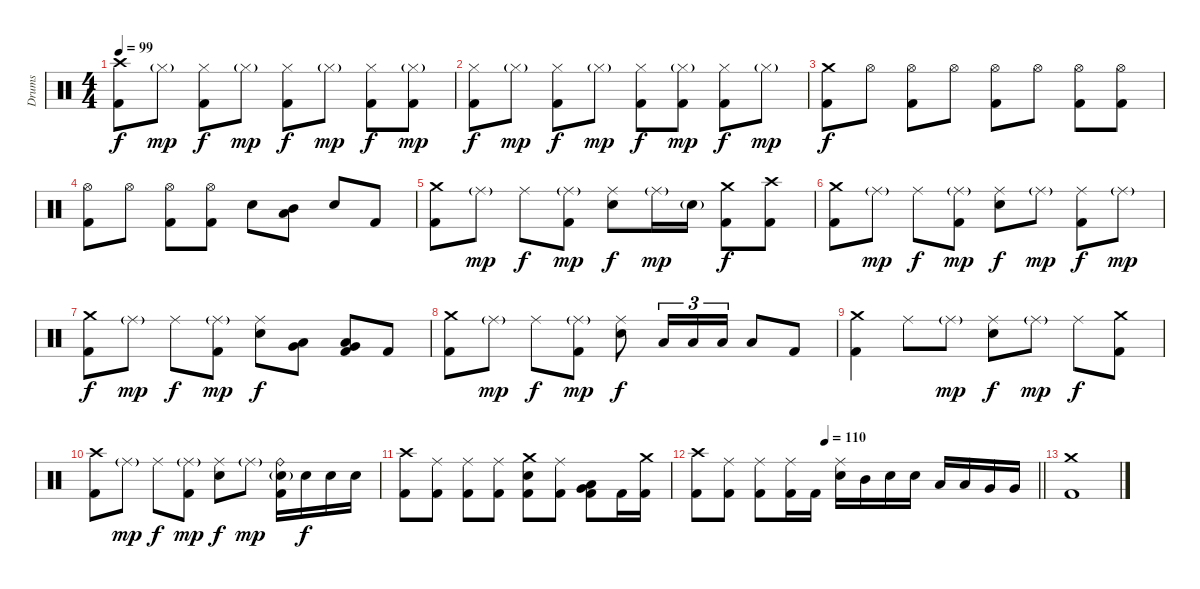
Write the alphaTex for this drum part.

\track ("Drums" "Drums") {instrument percussion}
\staff {score}
\articulation defaults
\ts (4 4)
\tempo 99
\clef neutral
\ks c
("Crash high (hit)" "Kick (hit) 2").8{dy f} "Hi-Hat (closed)"{g}.8{dy mp} ("Hi-Hat (closed)" "Kick (hit) 2").8{dy f} "Hi-Hat (closed)"{g}.8{dy mp} ("Hi-Hat (closed)" "Kick (hit) 2").8{dy f} "Hi-Hat (closed)"{g}.8{dy mp} ("Hi-Hat (closed)" "Kick (hit) 2").8{dy f} ("Hi-Hat (closed)"{g} "Kick (hit) 2").8{dy mp} |
("Hi-Hat (closed)" "Kick (hit) 2").8{dy f} "Hi-Hat (closed)"{g}.8{dy mp} ("Hi-Hat (closed)" "Kick (hit) 2").8{dy f} "Hi-Hat (closed)"{g}.8{dy mp} ("Hi-Hat (closed)" "Kick (hit) 2").8{dy f} ("Hi-Hat (closed)"{g} "Kick (hit) 2").8{dy mp} ("Hi-Hat (closed)" "Kick (hit) 2").8{dy f} "Hi-Hat (closed)"{g}.8{dy mp} |
("Crash medium (hit)" "Kick (hit) 2").8{dy f} "Hi-Hat (open)".8 ("Hi-Hat (open)" "Kick (hit) 2").8 "Hi-Hat (open)".8 ("Hi-Hat (open)" "Kick (hit) 2").8 "Hi-Hat (open)".8 ("Hi-Hat (open)" "Kick (hit) 2").8 ("Hi-Hat (open)" "Kick (hit) 2").8 |
("Hi-Hat (open)" "Kick (hit) 2").8 "Hi-Hat (open)".8 ("Hi-Hat (open)" "Kick (hit) 2").8 ("Hi-Hat (open)" "Kick (hit) 2").8 "Electric Snare (hit)".8 ("Low Tom (hit)" "Mid Tom (hit)").8 "Electric Snare (hit)".8 "Kick (hit) 2".8 |
("Crash medium (hit)" "Kick (hit) 2").8 "Ride (middle)"{g}.8{dy mp} "Ride (middle)".8{dy f} ("Ride (middle)"{g} "Kick (hit) 2").8{dy mp} ("Ride (middle)" "Electric Snare (hit)").8{dy f} "Ride (middle)"{g}.16{dy mp} "Electric Snare (hit)"{g}.16 ("Crash medium (hit)" "Kick (hit) 2").8{dy f} ("Crash high (hit)" "Kick (hit) 2").8 |
("Crash medium (hit)" "Kick (hit) 2").8 "Ride (middle)"{g}.8{dy mp} "Ride (middle)".8{dy f} ("Ride (middle)"{g} "Kick (hit) 2").8{dy mp} ("Ride (middle)" "Electric Snare (hit)").8{dy f} "Ride (middle)"{g}.8{dy mp} ("Ride (middle)" "Kick (hit) 2").8{dy f} "Ride (middle)"{g}.8{dy mp} |
("Crash medium (hit)" "Kick (hit) 2").8{dy f} "Ride (middle)"{g}.8{dy mp} "Ride (middle)".8{dy f} ("Ride (middle)"{g} "Kick (hit) 2").8{dy mp} ("Ride (middle)" "Electric Snare (hit)").8{dy f} ("Very Low Tom (hit)" "Low Floor Tom (hit)").8 ("Very Low Tom (hit)" "Low Floor Tom (hit)" "Kick (hit) 2").8 "Kick (hit) 2".8 |
("Crash medium (hit)" "Kick (hit) 2").8 "Ride (middle)"{g}.8{dy mp} "Ride (middle)".8{dy f} ("Ride (middle)"{g} "Kick (hit) 2").8{dy mp} ("Ride (middle)" "Electric Snare (hit)").8{dy f} "Low Tom (hit)".16{tu (3 2)} "Low Tom (hit)".16{tu (3 2)} "Low Tom (hit)".16{tu (3 2)} "Low Tom (hit)".8 "Kick (hit) 2".8 |
("Crash medium (hit)" "Kick (hit) 2").4 "Ride (middle)".8 "Ride (middle)"{g}.8{dy mp} ("Ride (middle)" "Electric Snare (hit)").8{dy f} "Ride (middle)"{g}.8{dy mp} "Ride (middle)".8{dy f} ("Crash medium (hit)" "Kick (hit) 2").8 |
("Crash high (hit)" "Kick (hit) 2").8 "Ride (middle)"{g}.8{dy mp} "Ride (middle)".8{dy f} ("Ride (middle)"{g} "Kick (hit) 2").8{dy mp} ("Ride (middle)" "Electric Snare (hit)").8{dy f} "Ride (middle)"{g}.8{dy mp} ("Ride (bell)" "Electric Snare (hit)"{g} "Kick (hit) 2").16 "Electric Snare (hit)".16{dy f} "Electric Snare (hit)".16 "Electric Snare (hit)".16 |
("Crash high (hit)" "Kick (hit) 2").8 ("Ride (middle)" "Kick (hit) 2").8 ("Ride (middle)" "Kick (hit) 2").8 ("Ride (middle)" "Kick (hit) 2").8 ("Crash medium (hit)" "Electric Snare (hit)" "Kick (hit) 2").8 ("Ride (middle)" "Kick (hit) 2").8 ("Low Tom (hit)" "Very Low Tom (hit)" "Kick (hit) 2").8 "Kick (hit) 2".16 ("Crash medium (hit)" "Kick (hit) 2").16 |
\tempo (110 0.375)
\barLineRight lightlight
("Crash high (hit)" "Kick (hit) 2").8 ("Ride (middle)" "Kick (hit) 2").8 ("Ride (middle)" "Kick (hit) 2").8 ("Ride (middle)" "Kick (hit) 2").16 "Kick (hit) 2".16 ("Ride (middle)" "Electric Snare (hit)").16 "Mid Tom (hit)".16 "Electric Snare (hit)".16 "Electric Snare (hit)".16 "Low Tom (hit)".16 "Low Tom (hit)".16 "Very Low Tom (hit)".16 "Very Low Tom (hit)".16 |
("Crash medium (hit)" "Kick (hit) 2").1
